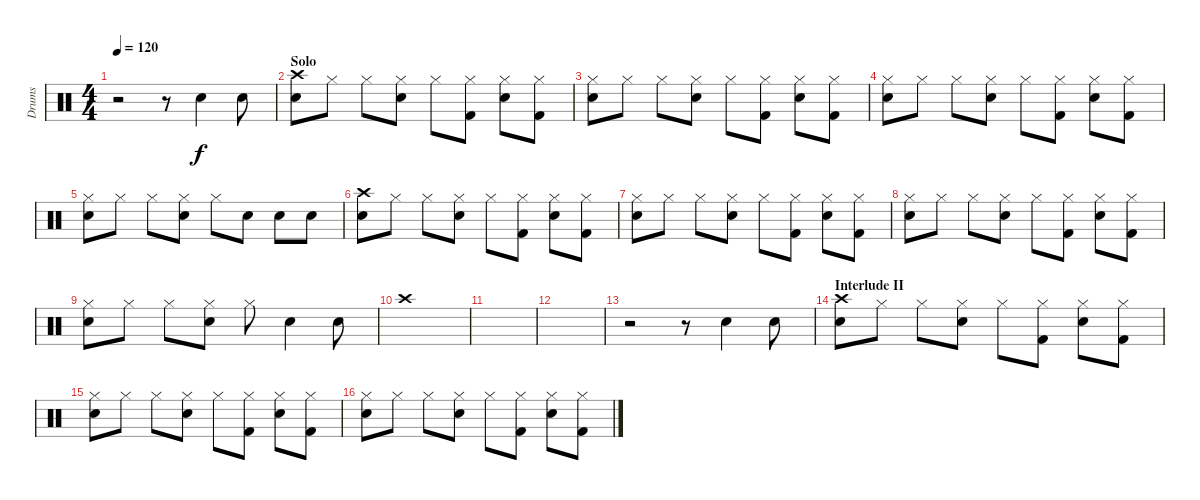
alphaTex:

\track ("Drums" "Drums") {instrument percussion}
\staff {score}
\articulation defaults
\ts (4 4)
\tempo 120
\clef neutral
\ks c
r.2{dy f} r.8 "Snare (hit) 2".4 "Snare (hit) 2".8 |
\section ("" "Solo")
("Crash high (hit)" "Snare (hit) 2").8 "Hi-Hat (closed)".8 "Hi-Hat (closed)".8 ("Hi-Hat (closed)" "Snare (hit) 2").8 "Hi-Hat (closed)".8 ("Hi-Hat (closed)" "Kick (hit) 2").8 ("Hi-Hat (closed)" "Snare (hit) 2").8 ("Hi-Hat (closed)" "Kick (hit) 2").8 |
("Hi-Hat (closed)" "Snare (hit) 2").8 "Hi-Hat (closed)".8 "Hi-Hat (closed)".8 ("Hi-Hat (closed)" "Snare (hit) 2").8 "Hi-Hat (closed)".8 ("Hi-Hat (closed)" "Kick (hit) 2").8 ("Hi-Hat (closed)" "Snare (hit) 2").8 ("Hi-Hat (closed)" "Kick (hit) 2").8 |
("Hi-Hat (closed)" "Snare (hit) 2").8 "Hi-Hat (closed)".8 "Hi-Hat (closed)".8 ("Hi-Hat (closed)" "Snare (hit) 2").8 "Hi-Hat (closed)".8 ("Hi-Hat (closed)" "Kick (hit) 2").8 ("Hi-Hat (closed)" "Snare (hit) 2").8 ("Hi-Hat (closed)" "Kick (hit) 2").8 |
("Hi-Hat (closed)" "Snare (hit) 2").8 "Hi-Hat (closed)".8 "Hi-Hat (closed)".8 ("Hi-Hat (closed)" "Snare (hit) 2").8 "Hi-Hat (closed)".8 "Snare (hit) 2".8 "Snare (hit) 2".8 "Snare (hit) 2".8 |
("Crash high (hit)" "Snare (hit) 2").8 "Hi-Hat (closed)".8 "Hi-Hat (closed)".8 ("Hi-Hat (closed)" "Snare (hit) 2").8 "Hi-Hat (closed)".8 ("Hi-Hat (closed)" "Kick (hit) 2").8 ("Hi-Hat (closed)" "Snare (hit) 2").8 ("Hi-Hat (closed)" "Kick (hit) 2").8 |
("Hi-Hat (closed)" "Snare (hit) 2").8 "Hi-Hat (closed)".8 "Hi-Hat (closed)".8 ("Hi-Hat (closed)" "Snare (hit) 2").8 "Hi-Hat (closed)".8 ("Hi-Hat (closed)" "Kick (hit) 2").8 ("Hi-Hat (closed)" "Snare (hit) 2").8 ("Hi-Hat (closed)" "Kick (hit) 2").8 |
("Hi-Hat (closed)" "Snare (hit) 2").8 "Hi-Hat (closed)".8 "Hi-Hat (closed)".8 ("Hi-Hat (closed)" "Snare (hit) 2").8 "Hi-Hat (closed)".8 ("Hi-Hat (closed)" "Kick (hit) 2").8 ("Hi-Hat (closed)" "Snare (hit) 2").8 ("Hi-Hat (closed)" "Kick (hit) 2").8 |
("Hi-Hat (closed)" "Snare (hit) 2").8 "Hi-Hat (closed)".8 "Hi-Hat (closed)".8 ("Hi-Hat (closed)" "Snare (hit) 2").8 "Hi-Hat (closed)".8 "Snare (hit) 2".4 "Snare (hit) 2".8 |
"Crash high (hit)".1 |
|
|
r.2 r.8 "Snare (hit) 2".4 "Snare (hit) 2".8 |
\section ("" "Interlude II")
("Crash high (hit)" "Snare (hit) 2").8 "Hi-Hat (closed)".8 "Hi-Hat (closed)".8 ("Hi-Hat (closed)" "Snare (hit) 2").8 "Hi-Hat (closed)".8 ("Hi-Hat (closed)" "Kick (hit) 2").8 ("Hi-Hat (closed)" "Snare (hit) 2").8 ("Hi-Hat (closed)" "Kick (hit) 2").8 |
("Hi-Hat (closed)" "Snare (hit) 2").8 "Hi-Hat (closed)".8 "Hi-Hat (closed)".8 ("Hi-Hat (closed)" "Snare (hit) 2").8 "Hi-Hat (closed)".8 ("Hi-Hat (closed)" "Kick (hit) 2").8 ("Hi-Hat (closed)" "Snare (hit) 2").8 ("Hi-Hat (closed)" "Kick (hit) 2").8 |
("Hi-Hat (closed)" "Snare (hit) 2").8 "Hi-Hat (closed)".8 "Hi-Hat (closed)".8 ("Hi-Hat (closed)" "Snare (hit) 2").8 "Hi-Hat (closed)".8 ("Hi-Hat (closed)" "Kick (hit) 2").8 ("Hi-Hat (closed)" "Snare (hit) 2").8 ("Hi-Hat (closed)" "Kick (hit) 2").8
